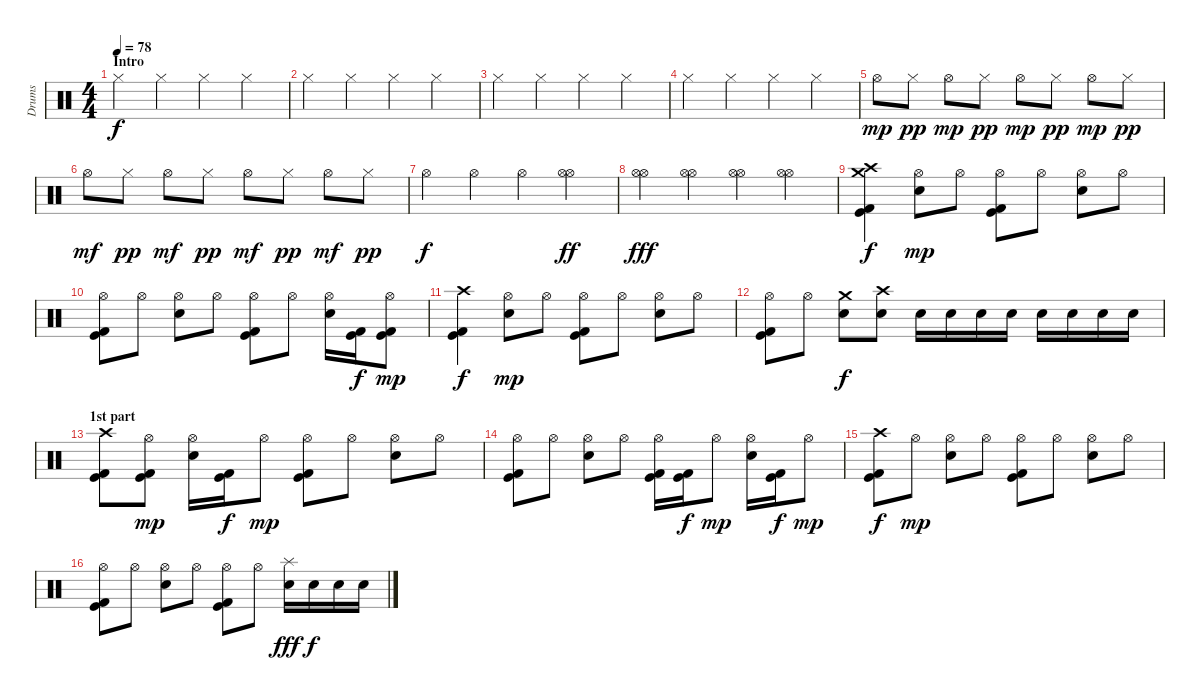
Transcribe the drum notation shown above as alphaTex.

\track ("Drums" "Drums") {instrument percussion}
\staff {score}
\articulation defaults
\ts (4 4)
\section ("" "Intro")
\tempo 78
\clef neutral
\ks c "Hi-Hat (closed)".4{dy f volume 16} "Hi-Hat (closed)".4 "Hi-Hat (closed)".4 "Hi-Hat (closed)".4
|
"Hi-Hat (closed)".4 "Hi-Hat (closed)".4 "Hi-Hat (closed)".4 "Hi-Hat (closed)".4 |
"Hi-Hat (closed)".4 "Hi-Hat (closed)".4 "Hi-Hat (closed)".4 "Hi-Hat (closed)".4 |
"Hi-Hat (closed)".4 "Hi-Hat (closed)".4 "Hi-Hat (closed)".4 "Hi-Hat (closed)".4 |
"Hi-Hat (open)".8{dy mp} "Hi-Hat (closed)".8{dy pp} "Hi-Hat (open)".8{dy mp} "Hi-Hat (closed)".8{dy pp} "Hi-Hat (open)".8{dy mp} "Hi-Hat (closed)".8{dy pp} "Hi-Hat (open)".8{dy mp} "Hi-Hat (closed)".8{dy pp} |
"Hi-Hat (open)".8{dy mf} "Hi-Hat (closed)".8{dy pp} "Hi-Hat (open)".8{dy mf} "Hi-Hat (closed)".8{dy pp} "Hi-Hat (open)".8{dy mf} "Hi-Hat (closed)".8{dy pp} "Hi-Hat (open)".8{dy mf} "Hi-Hat (closed)".8{dy pp} |
"Hi-Hat (open)".4{dy f} "Hi-Hat (open)".4 "Hi-Hat (open)".4 ("Hi-Hat (open)" "Hi-Hat (open)").4{dy ff} |
("Hi-Hat (open)" "Hi-Hat (open)").4{dy fff} ("Hi-Hat (open)" "Hi-Hat (open)").4 ("Hi-Hat (open)" "Hi-Hat (open)").4 ("Hi-Hat (open)" "Hi-Hat (open)").4 |
("Crash high (hit)" "Crash medium (hit)" "Kick (hit)" "Kick (hit) 2").4{dy f} ("Hi-Hat (open)" "Electric Snare (hit)").8{dy mp} "Hi-Hat (open)".8 ("Hi-Hat (open)" "Kick (hit)" "Kick (hit) 2").8 "Hi-Hat (open)".8 ("Hi-Hat (open)" "Electric Snare (hit)").8 "Hi-Hat (open)".8 |
("Hi-Hat (open)" "Kick (hit)" "Kick (hit) 2").8 "Hi-Hat (open)".8 ("Hi-Hat (open)" "Electric Snare (hit)").8 "Hi-Hat (open)".8 ("Hi-Hat (open)" "Kick (hit)" "Kick (hit) 2").8 "Hi-Hat (open)".8 ("Hi-Hat (open)" "Electric Snare (hit)").16 ("Kick (hit)" "Kick (hit) 2").16{dy f} ("Hi-Hat (open)" "Kick (hit)" "Kick (hit) 2").8{dy mp} |
("Crash high (hit)" "Kick (hit)" "Kick (hit) 2").4{dy f} ("Hi-Hat (open)" "Electric Snare (hit)").8{dy mp} "Hi-Hat (open)".8 ("Hi-Hat (open)" "Kick (hit)" "Kick (hit) 2").8 "Hi-Hat (open)".8 ("Hi-Hat (open)" "Electric Snare (hit)").8 "Hi-Hat (open)".8 |
("Hi-Hat (open)" "Kick (hit)" "Kick (hit) 2").8 "Hi-Hat (open)".8 ("Crash medium (hit)" "Electric Snare (hit)").8{dy f} ("Crash high (hit)" "Electric Snare (hit)").8 "Electric Snare (hit)".16 "Electric Snare (hit)".16 "Electric Snare (hit)".16 "Electric Snare (hit)".16 "Electric Snare (hit)".16 "Electric Snare (hit)".16 "Electric Snare (hit)".16 "Electric Snare (hit)".16 |
\section ("" "1st part")
("Crash high (hit)" "Kick (hit)" "Kick (hit) 2").8 ("Hi-Hat (open)" "Kick (hit)" "Kick (hit) 2").8{dy mp} ("Hi-Hat (open)" "Electric Snare (hit)").16 ("Kick (hit)" "Kick (hit) 2").16{dy f} "Hi-Hat (open)".8{dy mp} ("Hi-Hat (open)" "Kick (hit)" "Kick (hit) 2").8 "Hi-Hat (open)".8 ("Hi-Hat (open)" "Electric Snare (hit)").8 "Hi-Hat (open)".8 |
("Hi-Hat (open)" "Kick (hit)" "Kick (hit) 2").8 "Hi-Hat (open)".8 ("Hi-Hat (open)" "Electric Snare (hit)").8 "Hi-Hat (open)".8 ("Hi-Hat (open)" "Kick (hit)" "Kick (hit) 2").16 ("Kick (hit)" "Kick (hit) 2").16{dy f} "Hi-Hat (open)".8{dy mp} ("Hi-Hat (open)" "Electric Snare (hit)").16 ("Kick (hit)" "Kick (hit) 2").16{dy f} "Hi-Hat (open)".8{dy mp} |
("Crash high (hit)" "Kick (hit)" "Kick (hit) 2").8{dy f} "Hi-Hat (open)".8{dy mp} ("Hi-Hat (open)" "Electric Snare (hit)").8 "Hi-Hat (open)".8 ("Hi-Hat (open)" "Kick (hit)" "Kick (hit) 2").8 "Hi-Hat (open)".8 ("Hi-Hat (open)" "Electric Snare (hit)").8 "Hi-Hat (open)".8 |
("Hi-Hat (open)" "Kick (hit)" "Kick (hit) 2").8 "Hi-Hat (open)".8 ("Hi-Hat (open)" "Electric Snare (hit)").8 "Hi-Hat (open)".8 ("Hi-Hat (open)" "Kick (hit)" "Kick (hit) 2").8 "Hi-Hat (open)".8 ("Splash (hit)" "Electric Snare (hit)").16{dy fff} "Electric Snare (hit)".16{dy f} "Electric Snare (hit)".16 "Electric Snare (hit)".16
